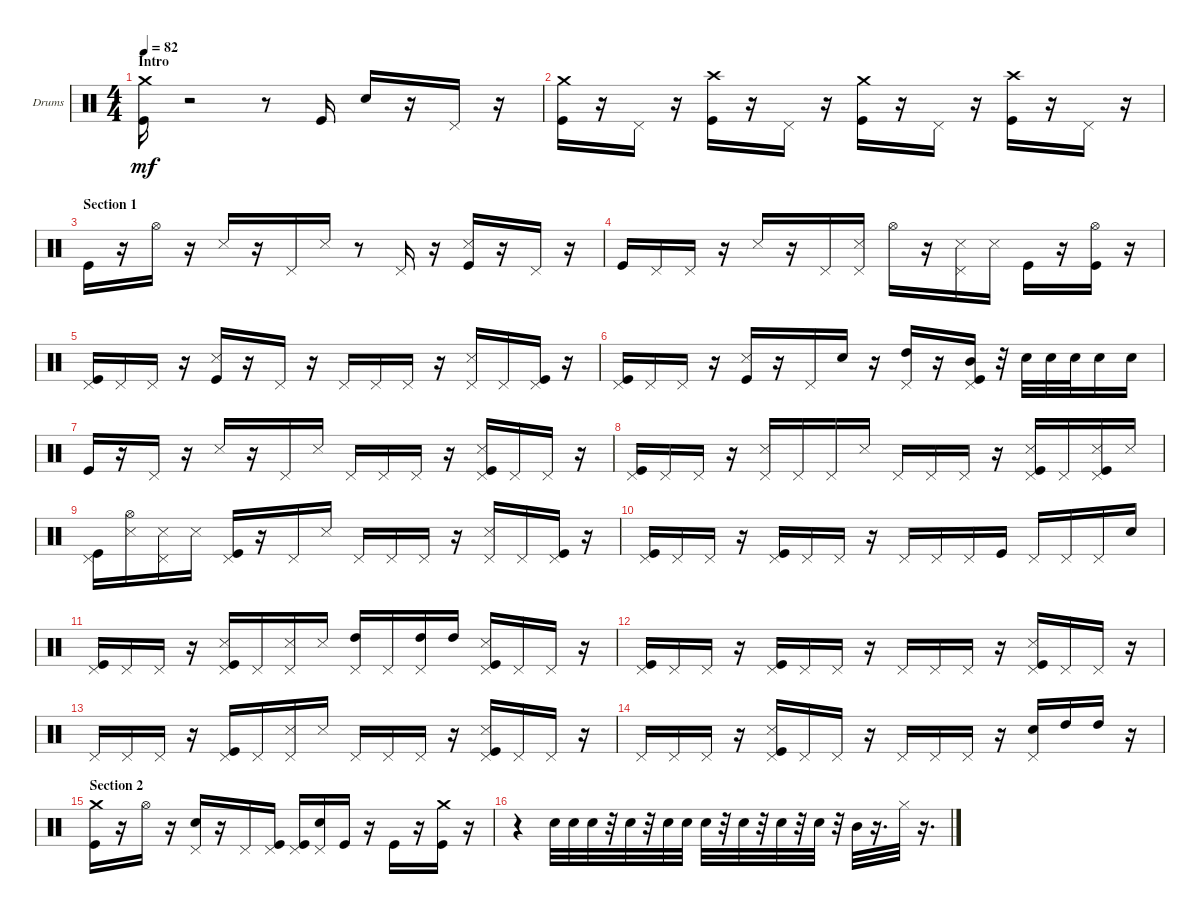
\bracketExtendMode groupsimilarinstruments
\firstSystemTrackNameOrientation horizontal
\otherSystemsTrackNameOrientation horizontal
\track ("Drumkit" "Drums") {instrument percussion}
\staff {score}
\articulation defaults
\ts (4 4)
\beaming (8 2 2 2 2)
\section ("" "Intro")
\tempo 82
\clef neutral
\ks aminor
("Kick (hit)" "Crash medium (hit)").16{dy mf} r.2 r.8 "Kick (hit)".16 "Snare (hit) 2".16 r.16 "Pedal Hi-Hat (hit)".16 r.16 |
("Kick (hit)" "Crash medium (hit)").16 r.16 "Pedal Hi-Hat (hit)".16 r.16 ("Kick (hit)" "Crash high (hit)").16 r.16 "Pedal Hi-Hat (hit)".16 r.16 ("Kick (hit)" "Crash medium (hit)").16 r.16 "Pedal Hi-Hat (hit)".16 r.16 ("Kick (hit)" "Crash high (hit)").16 r.16 "Pedal Hi-Hat (hit)".16 r.16 |
\section ("" "Section 1")
"Kick (hit)".16 r.16 "Hi-Hat (open)".16 r.16 "Snare (side stick) 3".16 r.16 "Pedal Hi-Hat (hit)".16 "Snare (side stick) 3".16 r.8 "Pedal Hi-Hat (hit)".16 r.16 ("Kick (hit)" "Snare (side stick) 3").16 r.16 "Pedal Hi-Hat (hit)".16 r.16 |
"Kick (hit)".16 "Pedal Hi-Hat (hit)".16 "Pedal Hi-Hat (hit)".16 r.16 "Snare (side stick) 3".16 r.16 "Pedal Hi-Hat (hit)".16 ("Snare (side stick) 3" "Pedal Hi-Hat (hit)").16 "Hi-Hat (open)".16 r.16 ("Snare (side stick) 3" "Pedal Hi-Hat (hit)").16 "Snare (side stick) 3".16 "Kick (hit)".16 r.16 ("Kick (hit)" "Hi-Hat (open)").16 r.16 |
("Kick (hit)" "Pedal Hi-Hat (hit)").16 "Pedal Hi-Hat (hit)".16 "Pedal Hi-Hat (hit)".16 r.16 ("Kick (hit)" "Snare (side stick) 3").16 r.16 "Pedal Hi-Hat (hit)".16 r.16 "Pedal Hi-Hat (hit)".16 "Pedal Hi-Hat (hit)".16 "Pedal Hi-Hat (hit)".16 r.16 ("Snare (side stick) 3" "Pedal Hi-Hat (hit)").16 "Pedal Hi-Hat (hit)".16 ("Kick (hit)" "Pedal Hi-Hat (hit)").16 r.16 |
("Kick (hit)" "Pedal Hi-Hat (hit)").16 "Pedal Hi-Hat (hit)".16 "Pedal Hi-Hat (hit)".16 r.16 ("Kick (hit)" "Snare (side stick) 3").16 r.16 "Pedal Hi-Hat (hit)".16 "Snare (hit) 2".16 r.16 ("Pedal Hi-Hat (hit)" "High Tom (hit)").16 r.16 ("Kick (hit)" "Pedal Hi-Hat (hit)" "Mid Tom (hit)").16 r.32 "Snare (hit) 2".32 "Snare (hit) 2".32 "Snare (hit) 2".32 "Snare (hit) 2".16 "Snare (hit) 2".16 |
"Kick (hit)".16 r.16 "Pedal Hi-Hat (hit)".16 r.16 "Snare (side stick) 3".16 r.16 "Pedal Hi-Hat (hit)".16 "Snare (side stick) 3".16 "Pedal Hi-Hat (hit)".16 "Pedal Hi-Hat (hit)".16 "Pedal Hi-Hat (hit)".16 r.16 ("Kick (hit)" "Snare (side stick) 3" "Pedal Hi-Hat (hit)").16 "Pedal Hi-Hat (hit)".16 "Pedal Hi-Hat (hit)".16 r.16 |
("Kick (hit)" "Pedal Hi-Hat (hit)").16 "Pedal Hi-Hat (hit)".16 "Pedal Hi-Hat (hit)".16 r.16 ("Snare (side stick) 3" "Pedal Hi-Hat (hit)").16 "Pedal Hi-Hat (hit)".16 "Pedal Hi-Hat (hit)".16 "Snare (side stick) 3".16 "Pedal Hi-Hat (hit)".16 "Pedal Hi-Hat (hit)".16 "Pedal Hi-Hat (hit)".16 r.16 ("Snare (side stick) 3" "Kick (hit)" "Pedal Hi-Hat (hit)").16 "Pedal Hi-Hat (hit)".16 ("Kick (hit)" "Snare (side stick) 3" "Pedal Hi-Hat (hit)").16 "Snare (side stick) 3".16 |
("Kick (hit)" "Pedal Hi-Hat (hit)").16 ("Snare (side stick) 3" "Hi-Hat (open)").16 ("Snare (side stick) 3" "Pedal Hi-Hat (hit)").16 "Snare (side stick) 3".16 ("Kick (hit)" "Pedal Hi-Hat (hit)").16 r.16 "Pedal Hi-Hat (hit)".16 "Snare (side stick) 3".16 "Pedal Hi-Hat (hit)".16 "Pedal Hi-Hat (hit)".16 "Pedal Hi-Hat (hit)".16 r.16 ("Snare (side stick) 3" "Pedal Hi-Hat (hit)").16 "Pedal Hi-Hat (hit)".16 ("Kick (hit)" "Pedal Hi-Hat (hit)").16 r.16 |
("Kick (hit)" "Pedal Hi-Hat (hit)").16 "Pedal Hi-Hat (hit)".16 "Pedal Hi-Hat (hit)".16 r.16 ("Kick (hit)" "Pedal Hi-Hat (hit)").16 "Pedal Hi-Hat (hit)".16 "Pedal Hi-Hat (hit)".16 r.16 "Pedal Hi-Hat (hit)".16 "Pedal Hi-Hat (hit)".16 "Pedal Hi-Hat (hit)".16 "Kick (hit)".16 "Pedal Hi-Hat (hit)".16 "Pedal Hi-Hat (hit)".16 "Pedal Hi-Hat (hit)".16 "Snare (hit) 2".16 |
("Kick (hit)" "Pedal Hi-Hat (hit)").16 "Pedal Hi-Hat (hit)".16 "Pedal Hi-Hat (hit)".16 r.16 ("Kick (hit)" "Snare (side stick) 3" "Pedal Hi-Hat (hit)").16 "Pedal Hi-Hat (hit)".16 ("Snare (side stick) 3" "Pedal Hi-Hat (hit)").16 "Snare (side stick) 3".16 ("Pedal Hi-Hat (hit)" "High Tom (hit)").16 "Pedal Hi-Hat (hit)".16 ("Pedal Hi-Hat (hit)" "High Tom (hit)").16 "High Tom (hit)".16 ("Snare (side stick) 3" "Kick (hit)" "Pedal Hi-Hat (hit)").16 "Pedal Hi-Hat (hit)".16 "Pedal Hi-Hat (hit)".16 r.16 |
("Kick (hit)" "Pedal Hi-Hat (hit)").16 "Pedal Hi-Hat (hit)".16 "Pedal Hi-Hat (hit)".16 r.16 ("Kick (hit)" "Pedal Hi-Hat (hit)").16 "Pedal Hi-Hat (hit)".16 "Pedal Hi-Hat (hit)".16 r.16 "Pedal Hi-Hat (hit)".16 "Pedal Hi-Hat (hit)".16 "Pedal Hi-Hat (hit)".16 r.16 ("Kick (hit)" "Snare (side stick) 3" "Pedal Hi-Hat (hit)").16 "Pedal Hi-Hat (hit)".16 "Pedal Hi-Hat (hit)".16 r.16 |
"Pedal Hi-Hat (hit)".16 "Pedal Hi-Hat (hit)".16 "Pedal Hi-Hat (hit)".16 r.16 ("Kick (hit)" "Pedal Hi-Hat (hit)").16 "Pedal Hi-Hat (hit)".16 ("Snare (side stick) 3" "Pedal Hi-Hat (hit)").16 "Snare (side stick) 3".16 "Pedal Hi-Hat (hit)".16 "Pedal Hi-Hat (hit)".16 "Pedal Hi-Hat (hit)".16 r.16 ("Kick (hit)" "Snare (side stick) 3" "Pedal Hi-Hat (hit)").16 "Pedal Hi-Hat (hit)".16 "Pedal Hi-Hat (hit)".16 r.16 |
"Pedal Hi-Hat (hit)".16 "Pedal Hi-Hat (hit)".16 "Pedal Hi-Hat (hit)".16 r.16 ("Kick (hit)" "Snare (side stick) 3" "Pedal Hi-Hat (hit)").16 "Pedal Hi-Hat (hit)".16 "Pedal Hi-Hat (hit)".16 r.16 "Pedal Hi-Hat (hit)".16 "Pedal Hi-Hat (hit)".16 "Pedal Hi-Hat (hit)".16 r.16 ("Snare (hit) 2" "Pedal Hi-Hat (hit)").16 "High Tom (hit)".16 "High Tom (hit)".16 r.16 |
\section ("" "Section 2")
("Kick (hit)" "Crash medium (hit)").16 r.16 "Hi-Hat (open)".16 r.16 ("Snare (hit) 2" "Pedal Hi-Hat (hit)").16 r.16 "Pedal Hi-Hat (hit)".16 ("Kick (hit)" "Pedal Hi-Hat (hit)").16 ("Kick (hit)" "Pedal Hi-Hat (hit)").16 ("Snare (hit) 2" "Pedal Hi-Hat (hit)").16 "Kick (hit)".16 r.16 "Kick (hit)".16 r.16 ("Kick (hit)" "Crash medium (hit)").16 r.16 |
r.4 "Snare (hit) 2".32 "Snare (hit) 2".32 "Snare (hit) 2".32 r.32 "Snare (hit) 2".32 r.32 "Snare (hit) 2".32 "Snare (hit) 2".32 "Snare (hit) 2".32 r.32 "Snare (hit) 2".32 r.32 "Snare (hit) 2".32 r.32 "Snare (hit) 2".32 r.32 "Mid Tom (hit)".32 r.16{d} "Hi-Hat (closed)".32 r.16{d}
